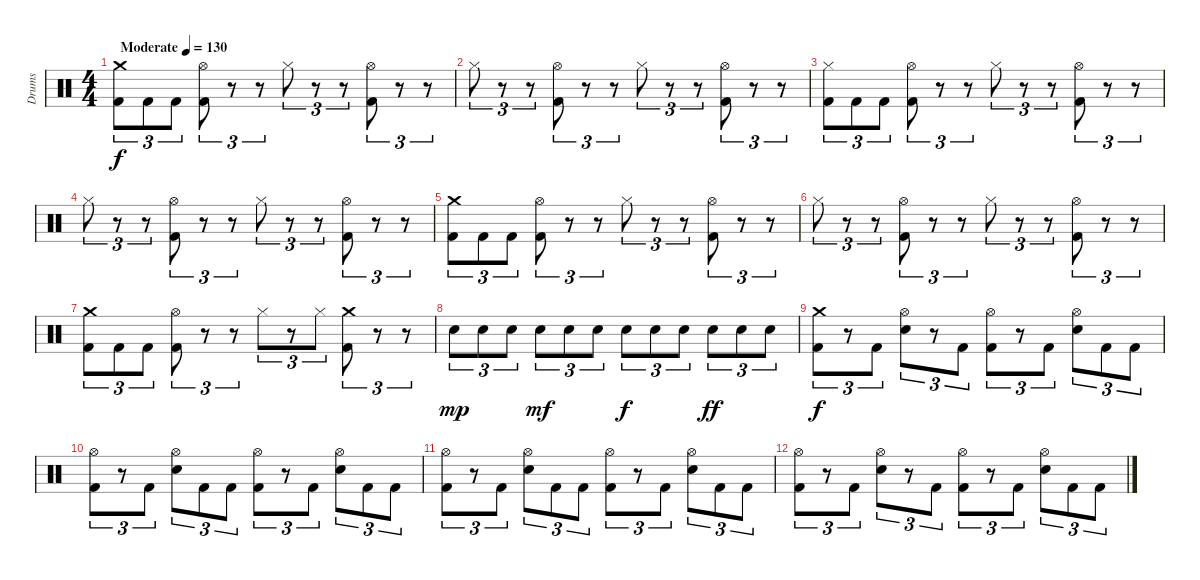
\track ("Drums" "Drums") {instrument percussion}
\staff {score}
\articulation defaults
\ts (4 4)
\tempo (130 "Moderate")
\clef neutral
\ks c
("Crash medium (hit)" "Kick (hit) 2").8{tu (3 2) dy f} "Kick (hit) 2".8{tu (3 2)} "Kick (hit) 2".8{tu (3 2)} ("Hi-Hat (open)" "Kick (hit) 2").8{tu (3 2)} r.8{tu (3 2)} r.8{tu (3 2)} "Hi-Hat (closed)".8{tu (3 2)} r.8{tu (3 2)} r.8{tu (3 2)} ("Hi-Hat (open)" "Kick (hit) 2").8{tu (3 2)} r.8{tu (3 2)} r.8{tu (3 2)} |
"Hi-Hat (closed)".8{tu (3 2)} r.8{tu (3 2)} r.8{tu (3 2)} ("Hi-Hat (open)" "Kick (hit) 2").8{tu (3 2)} r.8{tu (3 2)} r.8{tu (3 2)} "Hi-Hat (closed)".8{tu (3 2)} r.8{tu (3 2)} r.8{tu (3 2)} ("Hi-Hat (open)" "Kick (hit) 2").8{tu (3 2)} r.8{tu (3 2)} r.8{tu (3 2)} |
("Hi-Hat (closed)" "Kick (hit) 2").8{tu (3 2)} "Kick (hit) 2".8{tu (3 2)} "Kick (hit) 2".8{tu (3 2)} ("Hi-Hat (open)" "Kick (hit) 2").8{tu (3 2)} r.8{tu (3 2)} r.8{tu (3 2)} "Hi-Hat (closed)".8{tu (3 2)} r.8{tu (3 2)} r.8{tu (3 2)} ("Hi-Hat (open)" "Kick (hit) 2").8{tu (3 2)} r.8{tu (3 2)} r.8{tu (3 2)} |
"Hi-Hat (closed)".8{tu (3 2)} r.8{tu (3 2)} r.8{tu (3 2)} ("Hi-Hat (open)" "Kick (hit) 2").8{tu (3 2)} r.8{tu (3 2)} r.8{tu (3 2)} "Hi-Hat (closed)".8{tu (3 2)} r.8{tu (3 2)} r.8{tu (3 2)} ("Hi-Hat (open)" "Kick (hit) 2").8{tu (3 2)} r.8{tu (3 2)} r.8{tu (3 2)} |
("Crash medium (hit)" "Kick (hit) 2").8{tu (3 2)} "Kick (hit) 2".8{tu (3 2)} "Kick (hit) 2".8{tu (3 2)} ("Hi-Hat (open)" "Kick (hit) 2").8{tu (3 2)} r.8{tu (3 2)} r.8{tu (3 2)} "Hi-Hat (closed)".8{tu (3 2)} r.8{tu (3 2)} r.8{tu (3 2)} ("Hi-Hat (open)" "Kick (hit) 2").8{tu (3 2)} r.8{tu (3 2)} r.8{tu (3 2)} |
"Hi-Hat (closed)".8{tu (3 2)} r.8{tu (3 2)} r.8{tu (3 2)} ("Hi-Hat (open)" "Kick (hit) 2").8{tu (3 2)} r.8{tu (3 2)} r.8{tu (3 2)} "Hi-Hat (closed)".8{tu (3 2)} r.8{tu (3 2)} r.8{tu (3 2)} ("Hi-Hat (open)" "Kick (hit) 2").8{tu (3 2)} r.8{tu (3 2)} r.8{tu (3 2)} |
("Crash medium (hit)" "Kick (hit) 2").8{tu (3 2)} "Kick (hit) 2".8{tu (3 2)} "Kick (hit) 2".8{tu (3 2)} ("Hi-Hat (open)" "Kick (hit) 2").8{tu (3 2)} r.8{tu (3 2)} r.8{tu (3 2)} "Hi-Hat (closed)".8{tu (3 2)} r.8{tu (3 2)} "Hi-Hat (closed)".8{tu (3 2)} ("Crash medium (hit)" "Kick (hit) 2").8{tu (3 2)} r.8{tu (3 2)} r.8{tu (3 2)} |
"Snare (hit) 2".8{tu (3 2) dy mp} "Snare (hit) 2".8{tu (3 2)} "Snare (hit) 2".8{tu (3 2)} "Snare (hit) 2".8{tu (3 2) dy mf} "Snare (hit) 2".8{tu (3 2)} "Snare (hit) 2".8{tu (3 2)} "Snare (hit) 2".8{tu (3 2) dy f} "Snare (hit) 2".8{tu (3 2)} "Snare (hit) 2".8{tu (3 2)} "Snare (hit) 2".8{tu (3 2) dy ff} "Snare (hit) 2".8{tu (3 2)} "Snare (hit) 2".8{tu (3 2)} |
("Crash medium (hit)" "Kick (hit) 2").8{tu (3 2) dy f} r.8{tu (3 2)} "Kick (hit) 2".8{tu (3 2)} ("Hi-Hat (open)" "Snare (hit) 2").8{tu (3 2)} r.8{tu (3 2)} "Kick (hit) 2".8{tu (3 2)} ("Hi-Hat (open)" "Kick (hit) 2").8{tu (3 2)} r.8{tu (3 2)} "Kick (hit) 2".8{tu (3 2)} ("Hi-Hat (open)" "Snare (hit) 2").8{tu (3 2)} "Kick (hit) 2".8{tu (3 2)} "Kick (hit) 2".8{tu (3 2)} |
("Hi-Hat (open)" "Kick (hit) 2").8{tu (3 2)} r.8{tu (3 2)} "Kick (hit) 2".8{tu (3 2)} ("Hi-Hat (open)" "Snare (hit) 2").8{tu (3 2)} "Kick (hit) 2".8{tu (3 2)} "Kick (hit) 2".8{tu (3 2)} ("Hi-Hat (open)" "Kick (hit) 2").8{tu (3 2)} r.8{tu (3 2)} "Kick (hit) 2".8{tu (3 2)} ("Hi-Hat (open)" "Snare (hit) 2").8{tu (3 2)} "Kick (hit) 2".8{tu (3 2)} "Kick (hit) 2".8{tu (3 2)} |
("Hi-Hat (open)" "Kick (hit) 2").8{tu (3 2)} r.8{tu (3 2)} "Kick (hit) 2".8{tu (3 2)} ("Hi-Hat (open)" "Snare (hit) 2").8{tu (3 2)} "Kick (hit) 2".8{tu (3 2)} "Kick (hit) 2".8{tu (3 2)} ("Hi-Hat (open)" "Kick (hit) 2").8{tu (3 2)} r.8{tu (3 2)} "Kick (hit) 2".8{tu (3 2)} ("Hi-Hat (open)" "Snare (hit) 2").8{tu (3 2)} "Kick (hit) 2".8{tu (3 2)} "Kick (hit) 2".8{tu (3 2)} |
("Hi-Hat (open)" "Kick (hit) 2").8{tu (3 2)} r.8{tu (3 2)} "Kick (hit) 2".8{tu (3 2)} ("Hi-Hat (open)" "Snare (hit) 2").8{tu (3 2)} r.8{tu (3 2)} "Kick (hit) 2".8{tu (3 2)} ("Hi-Hat (open)" "Kick (hit) 2").8{tu (3 2)} r.8{tu (3 2)} "Kick (hit) 2".8{tu (3 2)} ("Hi-Hat (open)" "Snare (hit) 2").8{tu (3 2)} "Kick (hit) 2".8{tu (3 2)} "Kick (hit) 2".8{tu (3 2)}
